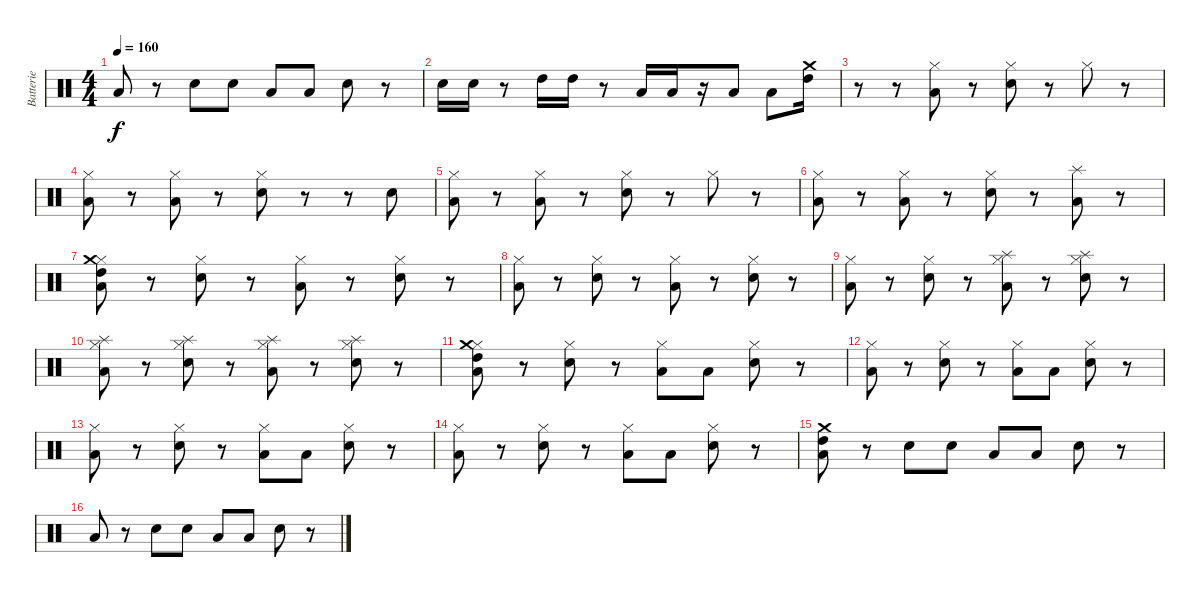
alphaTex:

\track ("Batterie" "Batterie") {instrument percussion}
\staff {score}
\articulation defaults
\ts (4 4)
\tempo 160
\clef neutral
\ks c "Low Floor Tom (hit)".8{dy f}
r.8 "Electric Snare (hit)".8 "Electric Snare (hit)".8 "Low Floor Tom (hit)".8 "Low Floor Tom (hit)".8 "Electric Snare (hit)".8 r.8 |
"Electric Snare (hit)".16 "Electric Snare (hit)".16 r.8 "High Tom (hit)".16 "High Tom (hit)".16 r.8 "Low Tom (hit)".16 "Low Tom (hit)".16 r.16 "Low Floor Tom (hit)".8 "Low Floor Tom (hit)".8 ("Crash medium (hit)" "High Tom (hit)").16 |
r.8 r.8 ("Hi-Hat (closed)" "Low Floor Tom (hit)").8 r.8 ("Hi-Hat (closed)" "Electric Snare (hit)").8 r.8 "Hi-Hat (closed)".8 r.8 |
("Hi-Hat (closed)" "Low Floor Tom (hit)").8 r.8 ("Hi-Hat (closed)" "Low Floor Tom (hit)").8 r.8 ("Hi-Hat (closed)" "Electric Snare (hit)").8 r.8 r.8 "Electric Snare (hit)".8 |
("Hi-Hat (closed)" "Low Floor Tom (hit)").8 r.8 ("Hi-Hat (closed)" "Low Floor Tom (hit)").8 r.8 ("Hi-Hat (closed)" "Electric Snare (hit)").8 r.8 "Hi-Hat (closed)".8 r.8 |
("Hi-Hat (closed)" "Low Floor Tom (hit)").8 r.8 ("Hi-Hat (closed)" "Low Floor Tom (hit)").8 r.8 ("Hi-Hat (closed)" "Electric Snare (hit)").8 r.8 ("Low Floor Tom (hit)" "Splash (hit)").8 r.8 |
("Hi-Hat (closed)" "Low Floor Tom (hit)" "Crash medium (hit)" "High Tom (hit)").8 r.8 ("Hi-Hat (closed)" "Electric Snare (hit)").8 r.8 ("Hi-Hat (closed)" "Low Floor Tom (hit)").8 r.8 ("Hi-Hat (closed)" "Electric Snare (hit)").8 r.8 |
("Hi-Hat (closed)" "Low Floor Tom (hit)").8 r.8 ("Hi-Hat (closed)" "Electric Snare (hit)").8 r.8 ("Hi-Hat (closed)" "Low Floor Tom (hit)").8 r.8 ("Hi-Hat (closed)" "Electric Snare (hit)").8 r.8 |
("Hi-Hat (closed)" "Low Floor Tom (hit)").8 r.8 ("Hi-Hat (closed)" "Electric Snare (hit)").8 r.8 ("Hi-Hat (closed)" "Low Floor Tom (hit)" "Splash (hit)").8 r.8 ("Hi-Hat (closed)" "Electric Snare (hit)" "Splash (hit)").8 r.8 |
("Hi-Hat (closed)" "Low Floor Tom (hit)" "Splash (hit)").8 r.8 ("Hi-Hat (closed)" "Electric Snare (hit)" "Splash (hit)").8 r.8 ("Hi-Hat (closed)" "Low Floor Tom (hit)" "Splash (hit)").8 r.8 ("Hi-Hat (closed)" "Electric Snare (hit)" "Splash (hit)").8 r.8 |
("Hi-Hat (closed)" "Low Floor Tom (hit)" "Crash medium (hit)" "High Tom (hit)").8 r.8 ("Hi-Hat (closed)" "Electric Snare (hit)").8 r.8 ("Hi-Hat (closed)" "Low Floor Tom (hit)").8 "Low Floor Tom (hit)".8 ("Hi-Hat (closed)" "Electric Snare (hit)").8 r.8 |
("Hi-Hat (closed)" "Low Floor Tom (hit)").8 r.8 ("Hi-Hat (closed)" "Electric Snare (hit)").8 r.8 ("Hi-Hat (closed)" "Low Floor Tom (hit)").8 "Low Floor Tom (hit)".8 ("Hi-Hat (closed)" "Electric Snare (hit)").8 r.8 |
("Hi-Hat (closed)" "Low Floor Tom (hit)").8 r.8 ("Hi-Hat (closed)" "Electric Snare (hit)").8 r.8 ("Hi-Hat (closed)" "Low Floor Tom (hit)").8 "Low Floor Tom (hit)".8 ("Hi-Hat (closed)" "Electric Snare (hit)").8 r.8 |
("Hi-Hat (closed)" "Low Floor Tom (hit)").8 r.8 ("Hi-Hat (closed)" "Electric Snare (hit)").8 r.8 ("Hi-Hat (closed)" "Low Floor Tom (hit)").8 "Low Floor Tom (hit)".8 ("Hi-Hat (closed)" "Electric Snare (hit)").8 r.8 |
("Low Floor Tom (hit)" "Crash medium (hit)" "High Tom (hit)").8 r.8 "Electric Snare (hit)".8 "Electric Snare (hit)".8 "Low Floor Tom (hit)".8 "Low Floor Tom (hit)".8 "Electric Snare (hit)".8 r.8 |
"Low Floor Tom (hit)".8 r.8 "Electric Snare (hit)".8 "Electric Snare (hit)".8 "Low Floor Tom (hit)".8 "Low Floor Tom (hit)".8 "Electric Snare (hit)".8 r.8
